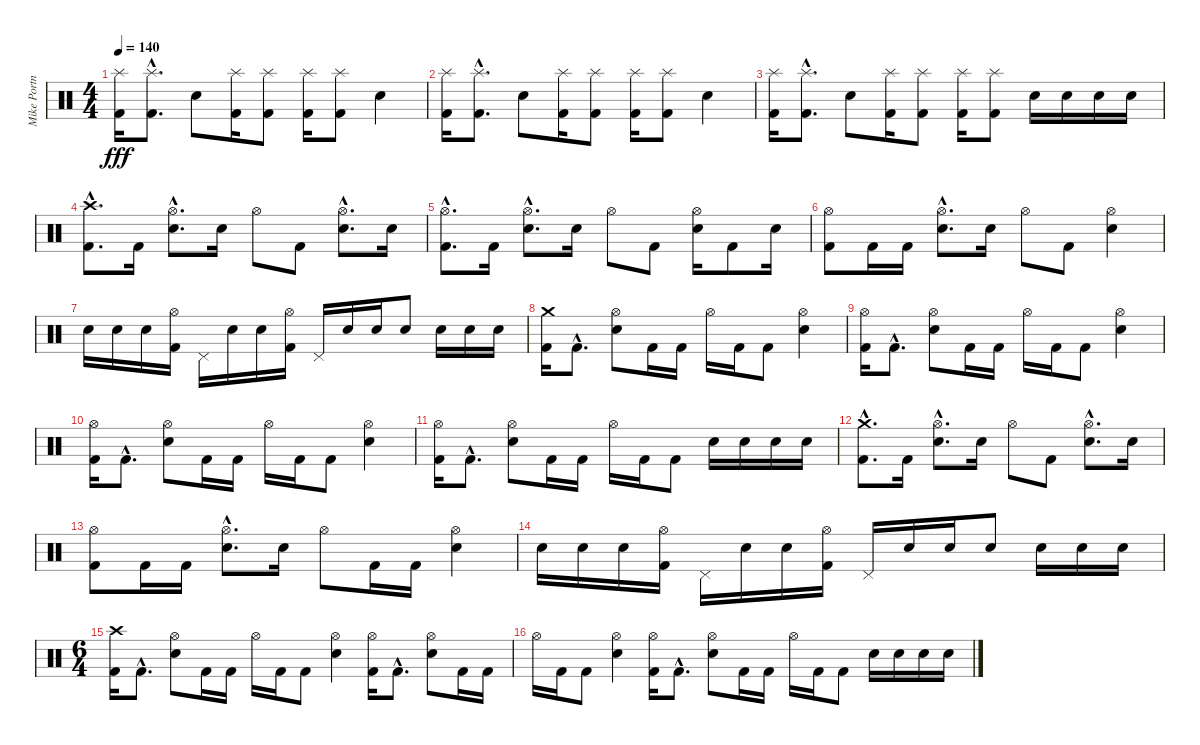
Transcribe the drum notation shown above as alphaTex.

\track ("Mike Portnoy" "Mike Portn") {instrument percussion}
\staff {score}
\articulation defaults
\ts (4 4)
\tempo 140
\clef neutral
\ks c
("Splash (hit)" "Kick (hit) 2").16{dy fff} ("Splash (hit)"{hac} "Kick (hit) 2"{hac}).8{d} "Snare (hit) 2".8 ("Splash (hit)" "Kick (hit) 2").16 ("Splash (hit)" "Kick (hit) 2").8 ("Splash (hit)" "Kick (hit) 2").16 ("Splash (hit)" "Kick (hit) 2").8 "Snare (hit) 2".4 |
("Splash (hit)" "Kick (hit) 2").16 ("Splash (hit)"{hac} "Kick (hit) 2"{hac}).8{d} "Snare (hit) 2".8 ("Splash (hit)" "Kick (hit) 2").16 ("Splash (hit)" "Kick (hit) 2").8 ("Splash (hit)" "Kick (hit) 2").16 ("Splash (hit)" "Kick (hit) 2").8 "Snare (hit) 2".4 |
("Splash (hit)" "Kick (hit) 2").16 ("Splash (hit)"{hac} "Kick (hit) 2"{hac}).8{d} "Snare (hit) 2".8 ("Splash (hit)" "Kick (hit) 2").16 ("Splash (hit)" "Kick (hit) 2").8 ("Splash (hit)" "Kick (hit) 2").16 ("Splash (hit)" "Kick (hit) 2").8 "Snare (hit) 2".16 "Snare (hit) 2".16 "Snare (hit) 2".16 "Snare (hit) 2".16 |
("Crash high (hit)"{hac} "Kick (hit) 2"{hac}).8{d} "Kick (hit) 2".16 ("Hi-Hat (open)"{hac} "Snare (hit) 2"{hac}).8{d} "Snare (hit) 2".16 "Hi-Hat (open)".8 "Kick (hit) 2".8 ("Hi-Hat (open)"{hac} "Snare (hit) 2"{hac}).8{d} "Snare (hit) 2".16 |
("Hi-Hat (open)"{hac} "Kick (hit) 2"{hac}).8{d} "Kick (hit) 2".16 ("Hi-Hat (open)"{hac} "Snare (hit) 2"{hac}).8{d} "Snare (hit) 2".16 "Hi-Hat (open)".8 "Kick (hit) 2".8 ("Hi-Hat (open)" "Snare (hit) 2").16 "Kick (hit) 2".8 "Snare (hit) 2".16 |
("Hi-Hat (open)" "Kick (hit) 2").8 "Kick (hit) 2".16 "Kick (hit) 2".16 ("Hi-Hat (open)"{hac} "Snare (hit) 2"{hac}).8{d} "Snare (hit) 2".16 "Hi-Hat (open)".8 "Kick (hit) 2".8 ("Hi-Hat (open)" "Snare (hit) 2").4 |
"Snare (hit) 2".16 "Snare (hit) 2".16 "Snare (hit) 2".16 ("Hi-Hat (open)" "Kick (hit) 2").16 "Pedal Hi-Hat (hit)".16 "Snare (hit) 2".16 "Snare (hit) 2".16 ("Hi-Hat (open)" "Kick (hit) 2").16 "Pedal Hi-Hat (hit)".16 "Snare (hit) 2".16 "Snare (hit) 2".16 "Snare (hit) 2".8 "Snare (hit) 2".16 "Snare (hit) 2".16 "Snare (hit) 2".16 |
("Crash medium (hit)" "Kick (hit) 2").16 "Kick (hit) 2"{hac}.8{d} ("Hi-Hat (open)" "Snare (hit) 2").8 "Kick (hit) 2".16 "Kick (hit) 2".16 "Hi-Hat (open)".16 "Kick (hit) 2".16 "Kick (hit) 2".8 ("Hi-Hat (open)" "Snare (hit) 2").4 |
("Hi-Hat (open)" "Kick (hit) 2").16 "Kick (hit) 2"{hac}.8{d} ("Hi-Hat (open)" "Snare (hit) 2").8 "Kick (hit) 2".16 "Kick (hit) 2".16 "Hi-Hat (open)".16 "Kick (hit) 2".16 "Kick (hit) 2".8 ("Hi-Hat (open)" "Snare (hit) 2").4 |
("Hi-Hat (open)" "Kick (hit) 2").16 "Kick (hit) 2"{hac}.8{d} ("Hi-Hat (open)" "Snare (hit) 2").8 "Kick (hit) 2".16 "Kick (hit) 2".16 "Hi-Hat (open)".16 "Kick (hit) 2".16 "Kick (hit) 2".8 ("Hi-Hat (open)" "Snare (hit) 2").4 |
("Hi-Hat (open)" "Kick (hit) 2").16 "Kick (hit) 2"{hac}.8{d} ("Hi-Hat (open)" "Snare (hit) 2").8 "Kick (hit) 2".16 "Kick (hit) 2".16 "Hi-Hat (open)".16 "Kick (hit) 2".16 "Kick (hit) 2".8 "Snare (hit) 2".16 "Snare (hit) 2".16 "Snare (hit) 2".16 "Snare (hit) 2".16 |
("Crash medium (hit)"{hac} "Kick (hit) 2"{hac}).8{d} "Kick (hit) 2".16 ("Hi-Hat (open)"{hac} "Snare (hit) 2"{hac}).8{d} "Snare (hit) 2".16 "Hi-Hat (open)".8 "Kick (hit) 2".8 ("Hi-Hat (open)"{hac} "Snare (hit) 2"{hac}).8{d} "Snare (hit) 2".16 |
("Hi-Hat (open)" "Kick (hit) 2").8 "Kick (hit) 2".16 "Kick (hit) 2".16 ("Hi-Hat (open)"{hac} "Snare (hit) 2"{hac}).8{d} "Snare (hit) 2".16 "Hi-Hat (open)".8 "Kick (hit) 2".16 "Kick (hit) 2".16 ("Hi-Hat (open)" "Snare (hit) 2").4 |
"Snare (hit) 2".16 "Snare (hit) 2".16 "Snare (hit) 2".16 ("Hi-Hat (open)" "Kick (hit) 2").16 "Pedal Hi-Hat (hit)".16 "Snare (hit) 2".16 "Snare (hit) 2".16 ("Hi-Hat (open)" "Kick (hit) 2").16 "Pedal Hi-Hat (hit)".16 "Snare (hit) 2".16 "Snare (hit) 2".16 "Snare (hit) 2".8 "Snare (hit) 2".16 "Snare (hit) 2".16 "Snare (hit) 2".16 |
\ts (6 4)
("Crash high (hit)" "Kick (hit) 2").16 "Kick (hit) 2"{hac}.8{d} ("Hi-Hat (open)" "Snare (hit) 2").8 "Kick (hit) 2".16 "Kick (hit) 2".16 "Hi-Hat (open)".16 "Kick (hit) 2".16 "Kick (hit) 2".8 ("Hi-Hat (open)" "Snare (hit) 2").4 ("Hi-Hat (open)" "Kick (hit) 2").16 "Kick (hit) 2"{hac}.8{d} ("Hi-Hat (open)" "Snare (hit) 2").8 "Kick (hit) 2".16 "Kick (hit) 2".16 |
"Hi-Hat (open)".16 "Kick (hit) 2".16 "Kick (hit) 2".8 ("Hi-Hat (open)" "Snare (hit) 2").4 ("Hi-Hat (open)" "Kick (hit) 2").16 "Kick (hit) 2"{hac}.8{d} ("Hi-Hat (open)" "Snare (hit) 2").8 "Kick (hit) 2".16 "Kick (hit) 2".16 "Hi-Hat (open)".16 "Kick (hit) 2".16 "Kick (hit) 2".8 "Snare (hit) 2".16 "Snare (hit) 2".16 "Snare (hit) 2".16 "Snare (hit) 2".16
